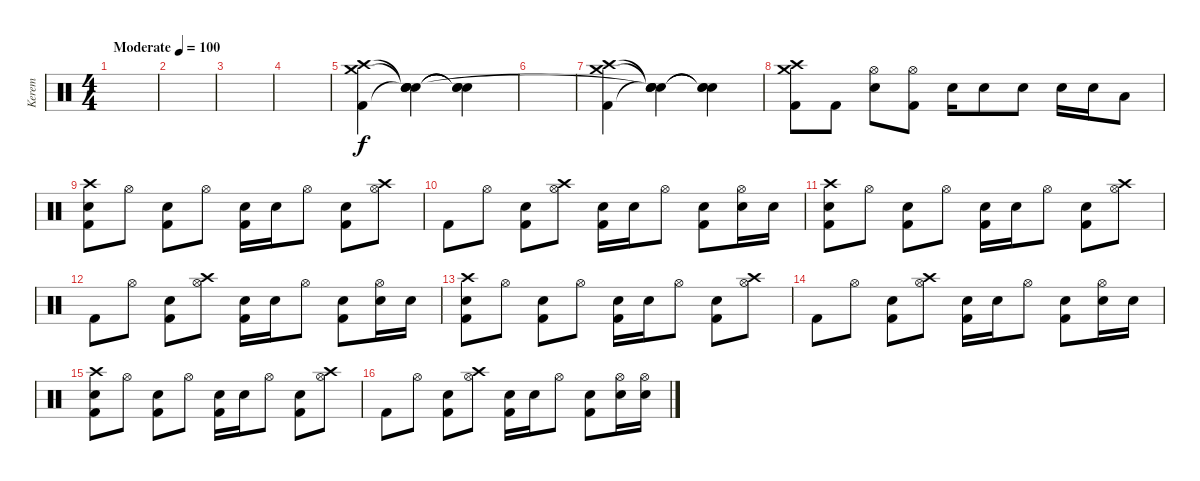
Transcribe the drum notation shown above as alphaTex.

\track ("Kerem" "Kerem") {instrument percussion}
\staff {score}
\articulation defaults
\ts (4 4)
\tempo (100 "Moderate")
\clef neutral
\ks c
|
|
|
|
("Crash high (hit)" "Crash medium (hit)" "Kick (hit) 2").4 ("Snare (hit)"{t} "Snare (hit)"{t} "Snare (hit)"{t} "Snare (hit)").4 ("Snare (hit)"{t} "Snare (hit)"{t} "Snare (hit)"{t}).4 |
|
("Crash high (hit)" "Crash medium (hit)" "Kick (hit) 2").4 ("Snare (hit)"{t} "Snare (hit)"{t} "Snare (hit)"{t} "Snare (hit)"{t}).4 ("Snare (hit)"{t} "Snare (hit)"{t} "Snare (hit)"{t}).4 |
("Crash high (hit)" "Crash medium (hit)" "Kick (hit) 2").8 "Kick (hit) 2".8 ("Hi-Hat (open)" "Electric Snare (hit)").8 ("Hi-Hat (open)" "Kick (hit) 2").8 "Electric Snare (hit)".16 "Electric Snare (hit)".8 "Electric Snare (hit)".8 "Electric Snare (hit)".16 "Electric Snare (hit)".16 "Low Tom (hit)".8 |
("Crash high (hit)" "Electric Snare (hit)" "Kick (hit) 2").8 "Hi-Hat (open)".8 ("Electric Snare (hit)" "Kick (hit) 2").8 "Hi-Hat (open)".8 ("Electric Snare (hit)" "Kick (hit) 2").16 "Electric Snare (hit)".16 "Hi-Hat (open)".8 ("Electric Snare (hit)" "Kick (hit) 2").8 ("Crash high (hit)" "Hi-Hat (open)").8 |
"Kick (hit) 2".8 "Hi-Hat (open)".8 ("Electric Snare (hit)" "Kick (hit) 2").8 ("Crash high (hit)" "Hi-Hat (open)").8 ("Electric Snare (hit)" "Kick (hit) 2").16 "Electric Snare (hit)".16 "Hi-Hat (open)".8 ("Electric Snare (hit)" "Kick (hit) 2").8 ("Electric Snare (hit)" "Hi-Hat (open)").16 "Electric Snare (hit)".16 |
("Crash high (hit)" "Electric Snare (hit)" "Kick (hit) 2").8 "Hi-Hat (open)".8 ("Electric Snare (hit)" "Kick (hit) 2").8 "Hi-Hat (open)".8 ("Electric Snare (hit)" "Kick (hit) 2").16 "Electric Snare (hit)".16 "Hi-Hat (open)".8 ("Electric Snare (hit)" "Kick (hit) 2").8 ("Crash high (hit)" "Hi-Hat (open)").8 |
"Kick (hit) 2".8 "Hi-Hat (open)".8 ("Electric Snare (hit)" "Kick (hit) 2").8 ("Crash high (hit)" "Hi-Hat (open)").8 ("Electric Snare (hit)" "Kick (hit) 2").16 "Electric Snare (hit)".16 "Hi-Hat (open)".8 ("Electric Snare (hit)" "Kick (hit) 2").8 ("Electric Snare (hit)" "Hi-Hat (open)").16 "Electric Snare (hit)".16 |
("Crash high (hit)" "Electric Snare (hit)" "Kick (hit) 2").8 "Hi-Hat (open)".8 ("Electric Snare (hit)" "Kick (hit) 2").8 "Hi-Hat (open)".8 ("Electric Snare (hit)" "Kick (hit) 2").16 "Electric Snare (hit)".16 "Hi-Hat (open)".8 ("Electric Snare (hit)" "Kick (hit) 2").8 ("Crash high (hit)" "Hi-Hat (open)").8 |
"Kick (hit) 2".8 "Hi-Hat (open)".8 ("Electric Snare (hit)" "Kick (hit) 2").8 ("Crash high (hit)" "Hi-Hat (open)").8 ("Electric Snare (hit)" "Kick (hit) 2").16 "Electric Snare (hit)".16 "Hi-Hat (open)".8 ("Electric Snare (hit)" "Kick (hit) 2").8 ("Electric Snare (hit)" "Hi-Hat (open)").16 "Electric Snare (hit)".16 |
("Crash high (hit)" "Electric Snare (hit)" "Kick (hit) 2").8 "Hi-Hat (open)".8 ("Electric Snare (hit)" "Kick (hit) 2").8 "Hi-Hat (open)".8 ("Electric Snare (hit)" "Kick (hit) 2").16 "Electric Snare (hit)".16 "Hi-Hat (open)".8 ("Electric Snare (hit)" "Kick (hit) 2").8 ("Crash high (hit)" "Hi-Hat (open)").8 |
"Kick (hit) 2".8 "Hi-Hat (open)".8 ("Electric Snare (hit)" "Kick (hit) 2").8 ("Crash high (hit)" "Hi-Hat (open)").8 ("Electric Snare (hit)" "Kick (hit) 2").16 "Electric Snare (hit)".16 "Hi-Hat (open)".8 ("Electric Snare (hit)" "Kick (hit) 2").8 ("Electric Snare (hit)" "Hi-Hat (open)").16 ("Electric Snare (hit)" "Hi-Hat (open)").16
